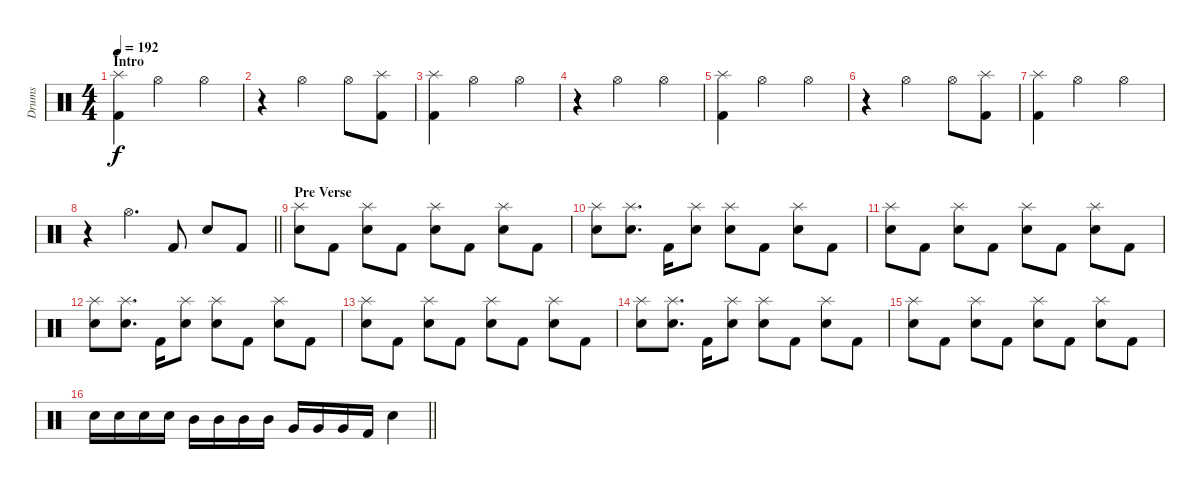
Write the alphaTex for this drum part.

\track ("Drums" "Drums") {instrument percussion}
\staff {score}
\articulation defaults
\ts (4 4)
\section ("" "Intro")
\tempo 192
\clef neutral
\ks c
("Splash (hit)" "Kick (hit) 2").4{dy f} "Hi-Hat (open)".2 "Hi-Hat (open)".4 |
r.4 "Hi-Hat (open)".2 "Hi-Hat (open)".8 ("Splash (hit)" "Kick (hit) 2").8 |
("Splash (hit)" "Kick (hit) 2").4 "Hi-Hat (open)".2 "Hi-Hat (open)".4 |
r.4 "Hi-Hat (open)".2 "Hi-Hat (open)".4 |
("Splash (hit)" "Kick (hit) 2").4 "Hi-Hat (open)".2 "Hi-Hat (open)".4 |
r.4 "Hi-Hat (open)".2 "Hi-Hat (open)".8 ("Splash (hit)" "Kick (hit) 2").8 |
("Splash (hit)" "Kick (hit) 2").4 "Hi-Hat (open)".2 "Hi-Hat (open)".4 |
\barLineRight lightlight
r.4 "Hi-Hat (open)".4{d} "Kick (hit) 2".8 "Electric Snare (hit)".8 "Kick (hit) 2".8 |
\section ("" "Pre Verse")
("Splash (hit)" "Electric Snare (hit)").8 "Kick (hit) 2".8 ("Splash (hit)" "Electric Snare (hit)").8 "Kick (hit) 2".8 ("Splash (hit)" "Electric Snare (hit)").8 "Kick (hit) 2".8 ("Splash (hit)" "Electric Snare (hit)").8 "Kick (hit) 2".8 |
("Splash (hit)" "Electric Snare (hit)").8 ("Splash (hit)" "Electric Snare (hit)").8{d} "Kick (hit) 2".16 ("Splash (hit)" "Electric Snare (hit)").8 ("Splash (hit)" "Electric Snare (hit)").8 "Kick (hit) 2".8 ("Splash (hit)" "Electric Snare (hit)").8 "Kick (hit) 2".8 |
("Splash (hit)" "Electric Snare (hit)").8 "Kick (hit) 2".8 ("Splash (hit)" "Electric Snare (hit)").8 "Kick (hit) 2".8 ("Splash (hit)" "Electric Snare (hit)").8 "Kick (hit) 2".8 ("Splash (hit)" "Electric Snare (hit)").8 "Kick (hit) 2".8 |
("Splash (hit)" "Electric Snare (hit)").8 ("Splash (hit)" "Electric Snare (hit)").8{d} "Kick (hit) 2".16 ("Splash (hit)" "Electric Snare (hit)").8 ("Splash (hit)" "Electric Snare (hit)").8 "Kick (hit) 2".8 ("Splash (hit)" "Electric Snare (hit)").8 "Kick (hit) 2".8 |
("Splash (hit)" "Electric Snare (hit)").8 "Kick (hit) 2".8 ("Splash (hit)" "Electric Snare (hit)").8 "Kick (hit) 2".8 ("Splash (hit)" "Electric Snare (hit)").8 "Kick (hit) 2".8 ("Splash (hit)" "Electric Snare (hit)").8 "Kick (hit) 2".8 |
("Splash (hit)" "Electric Snare (hit)").8 ("Splash (hit)" "Electric Snare (hit)").8{d} "Kick (hit) 2".16 ("Splash (hit)" "Electric Snare (hit)").8 ("Splash (hit)" "Electric Snare (hit)").8 "Kick (hit) 2".8 ("Splash (hit)" "Electric Snare (hit)").8 "Kick (hit) 2".8 |
("Splash (hit)" "Electric Snare (hit)").8 "Kick (hit) 2".8 ("Splash (hit)" "Electric Snare (hit)").8 "Kick (hit) 2".8 ("Splash (hit)" "Electric Snare (hit)").8 "Kick (hit) 2".8 ("Splash (hit)" "Electric Snare (hit)").8 "Kick (hit) 2".8 |
\barLineRight lightlight "Electric Snare (hit)".16 "Electric Snare (hit)".16 "Electric Snare (hit)".16 "Electric Snare (hit)".16 "Mid Tom (hit)".16 "Mid Tom (hit)".16 "Mid Tom (hit)".16 "Mid Tom (hit)".16 "Very Low Tom (hit)".16 "Very Low Tom (hit)".16 "Very Low Tom (hit)".16 "Kick (hit) 2".16 "Electric Snare (hit)".4
